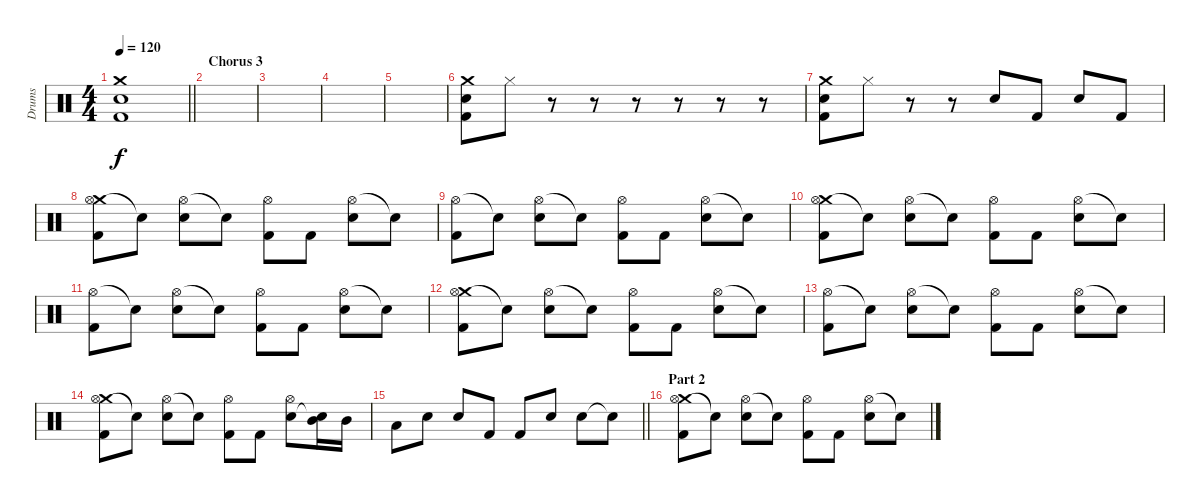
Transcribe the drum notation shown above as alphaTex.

\track ("Drums" "Drums") {instrument percussion}
\staff {score}
\articulation defaults
\ts (4 4)
\tempo 120
\clef neutral
\barLineRight lightlight
\ks c
("Crash medium (hit)" "Electric Snare (hit)" "Kick (hit) 2").1{dy f} |
\section ("" "Chorus 3")
|
|
|
|
("Crash medium (hit)" "Electric Snare (hit)" "Kick (hit) 2").8 "Hi-Hat (closed)".8 r.8 r.8 r.8 r.8 r.8 r.8 |
("Crash medium (hit)" "Electric Snare (hit)" "Kick (hit) 2").8 "Hi-Hat (closed)".8 r.8 r.8 "Electric Snare (hit)".8 "Kick (hit) 2".8 "Electric Snare (hit)".8 "Kick (hit) 2".8 |
("Crash medium (hit)" "Hi-Hat (open)" "Kick (hit) 2").8 "Snare (hit)"{t}.8 ("Hi-Hat (open)" "Electric Snare (hit)").8 "Snare (hit)"{t}.8 ("Hi-Hat (open)" "Kick (hit) 2").8 "Kick (hit) 2".8 ("Hi-Hat (open)" "Electric Snare (hit)").8 "Snare (hit)"{t}.8 |
("Hi-Hat (open)" "Kick (hit) 2").8 "Snare (hit)"{t}.8 ("Hi-Hat (open)" "Electric Snare (hit)").8 "Snare (hit)"{t}.8 ("Hi-Hat (open)" "Kick (hit) 2").8 "Kick (hit) 2".8 ("Hi-Hat (open)" "Electric Snare (hit)").8 "Snare (hit)"{t}.8 |
("Crash medium (hit)" "Hi-Hat (open)" "Kick (hit) 2").8 "Snare (hit)"{t}.8 ("Hi-Hat (open)" "Electric Snare (hit)").8 "Snare (hit)"{t}.8 ("Hi-Hat (open)" "Kick (hit) 2").8 "Kick (hit) 2".8 ("Hi-Hat (open)" "Electric Snare (hit)").8 "Snare (hit)"{t}.8 |
("Hi-Hat (open)" "Kick (hit) 2").8 "Snare (hit)"{t}.8 ("Hi-Hat (open)" "Electric Snare (hit)").8 "Snare (hit)"{t}.8 ("Hi-Hat (open)" "Kick (hit) 2").8 "Kick (hit) 2".8 ("Hi-Hat (open)" "Electric Snare (hit)").8 "Snare (hit)"{t}.8 |
("Crash medium (hit)" "Hi-Hat (open)" "Kick (hit) 2").8 "Snare (hit)"{t}.8 ("Hi-Hat (open)" "Electric Snare (hit)").8 "Snare (hit)"{t}.8 ("Hi-Hat (open)" "Kick (hit) 2").8 "Kick (hit) 2".8 ("Hi-Hat (open)" "Electric Snare (hit)").8 "Snare (hit)"{t}.8 |
("Hi-Hat (open)" "Kick (hit) 2").8 "Snare (hit)"{t}.8 ("Hi-Hat (open)" "Electric Snare (hit)").8 "Snare (hit)"{t}.8 ("Hi-Hat (open)" "Kick (hit) 2").8 "Kick (hit) 2".8 ("Hi-Hat (open)" "Electric Snare (hit)").8 "Snare (hit)"{t}.8 |
("Crash medium (hit)" "Hi-Hat (open)" "Kick (hit) 2").8 "Snare (hit)"{t}.8 ("Hi-Hat (open)" "Electric Snare (hit)").8 "Snare (hit)"{t}.8 ("Hi-Hat (open)" "Kick (hit) 2").8 "Kick (hit) 2".8 ("Hi-Hat (open)" "Electric Snare (hit)").8 ("Mid Tom (hit)" "Snare (hit)"{t}).16 "Mid Tom (hit)".16 |
\barLineRight lightlight "Low Tom (hit)".8 "Electric Snare (hit)".8 "Electric Snare (hit)".8 "Kick (hit) 2".8 "Kick (hit) 2".8 "Electric Snare (hit)".8 "Electric Snare (hit)".8 "Snare (hit)"{t}.8
|
\section ("" "Part 2")
("Crash medium (hit)" "Hi-Hat (open)" "Kick (hit) 2").8 "Snare (hit)"{t}.8 ("Hi-Hat (open)" "Electric Snare (hit)").8 "Snare (hit)"{t}.8 ("Hi-Hat (open)" "Kick (hit) 2").8 "Kick (hit) 2".8 ("Hi-Hat (open)" "Electric Snare (hit)").8 "Snare (hit)"{t}.8
